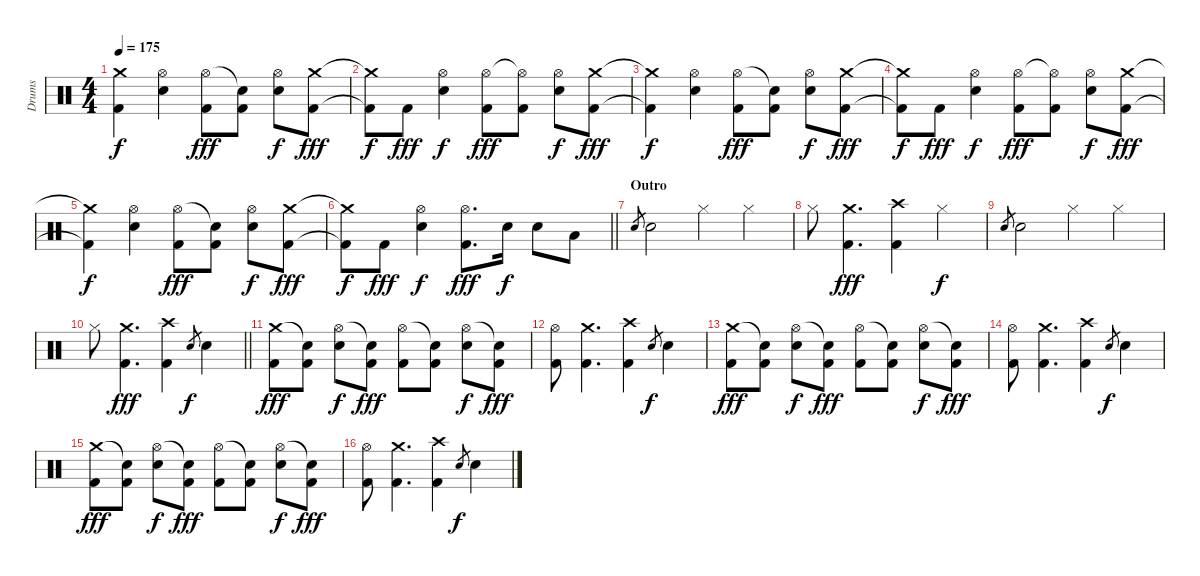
\track ("Drums" "Drums") {instrument percussion}
\staff {score}
\articulation defaults
\ts (4 4)
\tempo 175
\clef neutral
\ks c
("Crash medium (hit)"{t} "Kick (hit) 2"{t}).4{dy f} ("Hi-Hat (open)" "Snare (hit) 2").4 ("Hi-Hat (open)" "Kick (hit) 2").8{dy fff} ("Snare (hit)"{t} "Kick (hit) 2").8 ("Hi-Hat (open)" "Snare (hit) 2").8{dy f} ("Crash medium (hit)" "Kick (hit) 2").8{dy fff} |
("Crash medium (hit)"{t} "Kick (hit) 2"{t}).8{dy f} "Kick (hit) 2".8{dy fff} ("Hi-Hat (open)" "Snare (hit) 2").4{dy f} ("Hi-Hat (open)" "Kick (hit) 2").8{dy fff} ("Hi-Hat (open)"{t} "Kick (hit) 2").8 ("Hi-Hat (open)" "Snare (hit) 2").8{dy f} ("Crash medium (hit)" "Kick (hit) 2").8{dy fff} |
("Crash medium (hit)"{t} "Kick (hit) 2"{t}).4{dy f} ("Hi-Hat (open)" "Snare (hit) 2").4 ("Hi-Hat (open)" "Kick (hit) 2").8{dy fff} ("Snare (hit)"{t} "Kick (hit) 2").8 ("Hi-Hat (open)" "Snare (hit) 2").8{dy f} ("Crash medium (hit)" "Kick (hit) 2").8{dy fff} |
("Crash medium (hit)"{t} "Kick (hit) 2"{t}).8{dy f} "Kick (hit) 2".8{dy fff} ("Hi-Hat (open)" "Snare (hit) 2").4{dy f} ("Hi-Hat (open)" "Kick (hit) 2").8{dy fff} ("Hi-Hat (open)"{t} "Kick (hit) 2").8 ("Hi-Hat (open)" "Snare (hit) 2").8{dy f} ("Crash medium (hit)" "Kick (hit) 2").8{dy fff} |
("Crash medium (hit)"{t} "Kick (hit) 2"{t}).4{dy f} ("Hi-Hat (open)" "Snare (hit) 2").4 ("Hi-Hat (open)" "Kick (hit) 2").8{dy fff} ("Snare (hit)"{t} "Kick (hit) 2").8 ("Hi-Hat (open)" "Snare (hit) 2").8{dy f} ("Crash medium (hit)" "Kick (hit) 2").8{dy fff} |
\barLineRight lightlight
("Crash medium (hit)"{t} "Kick (hit) 2"{t}).8{dy f} "Kick (hit) 2".8{dy fff} ("Hi-Hat (open)" "Snare (hit) 2").4{dy f} ("Hi-Hat (open)" "Kick (hit) 2").8{d dy fff} "Snare (hit) 2".16{dy f} "Snare (hit) 2".8 "Low Tom (hit)".8 |
\section ("" "Outro")
"Snare (hit) 2".8{gr} "Snare (hit) 2".2 "Hi-Hat (closed)".4 "Hi-Hat (closed)".4 |
"Hi-Hat (closed)".8 ("Crash medium (hit)" "Kick (hit) 2").4{d dy fff} ("Crash high (hit)" "Kick (hit) 2").4 "Hi-Hat (closed)".4{dy f} |
"Snare (hit) 2".8{gr} "Snare (hit) 2".2 "Hi-Hat (closed)".4 "Hi-Hat (closed)".4 |
\barLineRight lightlight "Hi-Hat (closed)".8
("Crash medium (hit)" "Kick (hit) 2").4{d dy fff} ("Crash high (hit)" "Kick (hit) 2").4 "Snare (hit) 2".8{gr dy f} "Snare (hit) 2".4 |
("Crash medium (hit)" "Kick (hit) 2").8{dy fff} ("Snare (hit)"{t} "Kick (hit) 2").8 ("Hi-Hat (open)" "Snare (hit) 2").8{dy f} ("Snare (hit)"{t} "Kick (hit) 2").8{dy fff} ("Hi-Hat (open)" "Kick (hit) 2").8 ("Snare (hit)"{t} "Kick (hit) 2").8 ("Hi-Hat (open)" "Snare (hit) 2").8{dy f} ("Snare (hit)"{t} "Kick (hit) 2").8{dy fff} |
("Hi-Hat (open)" "Kick (hit) 2").8 ("Crash medium (hit)" "Kick (hit) 2").4{d} ("Crash high (hit)" "Kick (hit) 2").4 "Snare (hit) 2".8{gr dy f} "Snare (hit) 2".4 |
("Crash medium (hit)" "Kick (hit) 2").8{dy fff} ("Snare (hit)"{t} "Kick (hit) 2").8 ("Hi-Hat (open)" "Snare (hit) 2").8{dy f} ("Snare (hit)"{t} "Kick (hit) 2").8{dy fff} ("Hi-Hat (open)" "Kick (hit) 2").8 ("Snare (hit)"{t} "Kick (hit) 2").8 ("Hi-Hat (open)" "Snare (hit) 2").8{dy f} ("Snare (hit)"{t} "Kick (hit) 2").8{dy fff} |
("Hi-Hat (open)" "Kick (hit) 2").8 ("Crash medium (hit)" "Kick (hit) 2").4{d} ("Crash high (hit)" "Kick (hit) 2").4 "Snare (hit) 2".8{gr dy f} "Snare (hit) 2".4 |
("Crash medium (hit)" "Kick (hit) 2").8{dy fff} ("Snare (hit)"{t} "Kick (hit) 2").8 ("Hi-Hat (open)" "Snare (hit) 2").8{dy f} ("Snare (hit)"{t} "Kick (hit) 2").8{dy fff} ("Hi-Hat (open)" "Kick (hit) 2").8 ("Snare (hit)"{t} "Kick (hit) 2").8 ("Hi-Hat (open)" "Snare (hit) 2").8{dy f} ("Snare (hit)"{t} "Kick (hit) 2").8{dy fff} |
("Hi-Hat (open)" "Kick (hit) 2").8 ("Crash medium (hit)" "Kick (hit) 2").4{d} ("Crash high (hit)" "Kick (hit) 2").4 "Snare (hit) 2".8{gr dy f} "Snare (hit) 2".4
